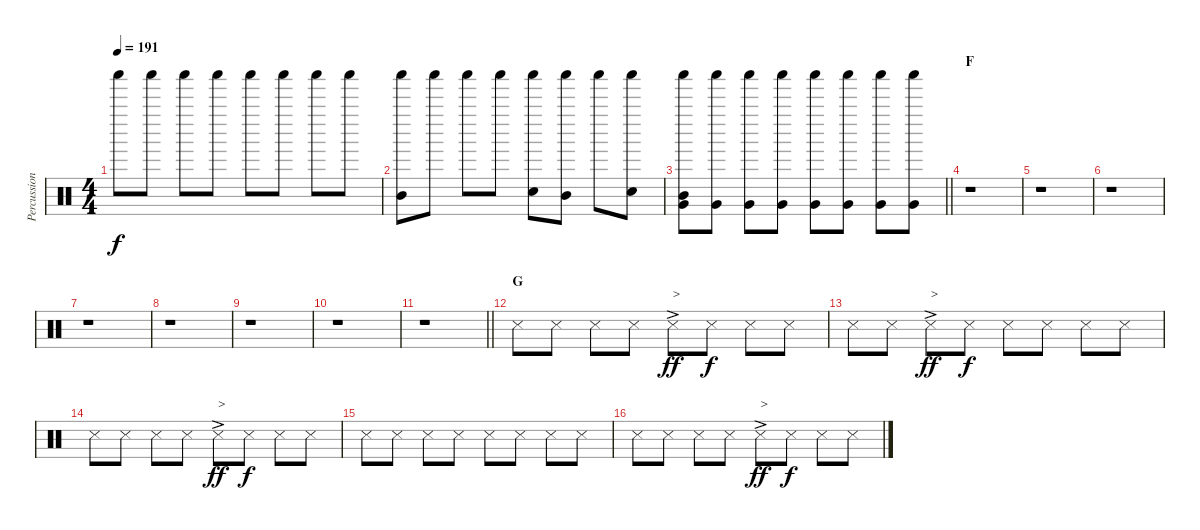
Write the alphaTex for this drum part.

\track ("Percussion" "Percussion") {instrument percussion}
\staff {score}
\articulation defaults
\ts (4 4)
\tempo 191
\clef neutral
\ks c "Shaker (hit)".8{dy f} "Shaker (hit)".8 "Shaker (hit)".8 "Shaker (hit)".8 "Shaker (hit)".8 "Shaker (hit)".8 "Shaker (hit)".8 "Shaker (hit)".8
|
("Mid Tom (hit)" "Shaker (hit)").8 "Shaker (hit)".8 "Shaker (hit)".8 "Shaker (hit)".8 ("Electric Snare (hit)" "Shaker (hit)").8 ("Mid Tom (hit)" "Shaker (hit)").8 "Shaker (hit)".8 ("Electric Snare (hit)" "Shaker (hit)").8 |
\barLineRight lightlight
("Mid Tom (hit)" "Shaker (hit)" "Very Low Tom (hit)").8 ("Shaker (hit)" "Very Low Tom (hit)").8 ("Shaker (hit)" "Very Low Tom (hit)").8 ("Shaker (hit)" "Very Low Tom (hit)").8 ("Shaker (hit)" "Very Low Tom (hit)").8 ("Shaker (hit)" "Very Low Tom (hit)").8 ("Shaker (hit)" "Very Low Tom (hit)").8 ("Shaker (hit)" "Very Low Tom (hit)").8 |
\section ("" "F")
r.1 |
r.1 |
r.1 |
r.1 |
r.1 |
r.1 |
r.1 |
\barLineRight lightlight
r.1 |
\section ("" "G")
"Snare (side stick) 3".8 "Snare (side stick) 3".8 "Snare (side stick) 3".8 "Snare (side stick) 3".8 "Snare (side stick) 3"{ac}.8{txt ">" dy ff} "Snare (side stick) 3".8{dy f} "Snare (side stick) 3".8 "Snare (side stick) 3".8 |
"Snare (side stick) 3".8 "Snare (side stick) 3".8 "Snare (side stick) 3"{ac}.8{txt ">" dy ff} "Snare (side stick) 3".8{dy f} "Snare (side stick) 3".8 "Snare (side stick) 3".8 "Snare (side stick) 3".8 "Snare (side stick) 3".8 |
"Snare (side stick) 3".8 "Snare (side stick) 3".8 "Snare (side stick) 3".8 "Snare (side stick) 3".8 "Snare (side stick) 3"{ac}.8{txt ">" dy ff} "Snare (side stick) 3".8{dy f} "Snare (side stick) 3".8 "Snare (side stick) 3".8 |
"Snare (side stick) 3".8 "Snare (side stick) 3".8 "Snare (side stick) 3".8 "Snare (side stick) 3".8 "Snare (side stick) 3".8 "Snare (side stick) 3".8 "Snare (side stick) 3".8 "Snare (side stick) 3".8 |
"Snare (side stick) 3".8 "Snare (side stick) 3".8 "Snare (side stick) 3".8 "Snare (side stick) 3".8 "Snare (side stick) 3"{ac}.8{txt ">" dy ff} "Snare (side stick) 3".8{dy f} "Snare (side stick) 3".8 "Snare (side stick) 3".8
